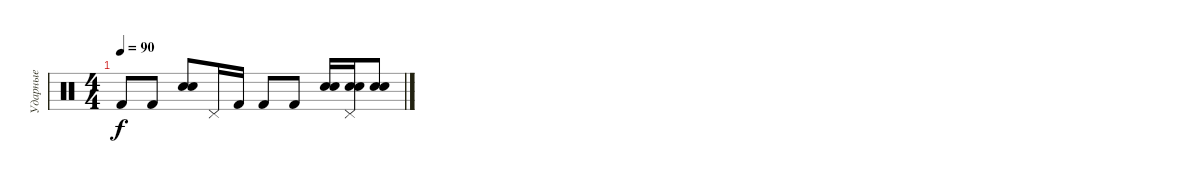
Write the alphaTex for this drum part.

\track ("Ударные" "Ударные") {instrument percussion}
\staff {score}
\articulation defaults
\ts (4 4)
\tempo 90
\clef neutral
\ks c "Kick (hit) 2".8{dy f} "Kick (hit) 2".8
("Electric Snare (hit)" "Snare (hit) 2").8 "Pedal Hi-Hat (hit)".16 "Kick (hit) 2".16 "Kick (hit) 2".8 "Kick (hit) 2".8 ("Electric Snare (hit)" "Snare (hit) 2").16 ("Pedal Hi-Hat (hit)" "Electric Snare (hit)" "Snare (hit) 2").16 ("Electric Snare (hit)" "Snare (hit) 2").8
